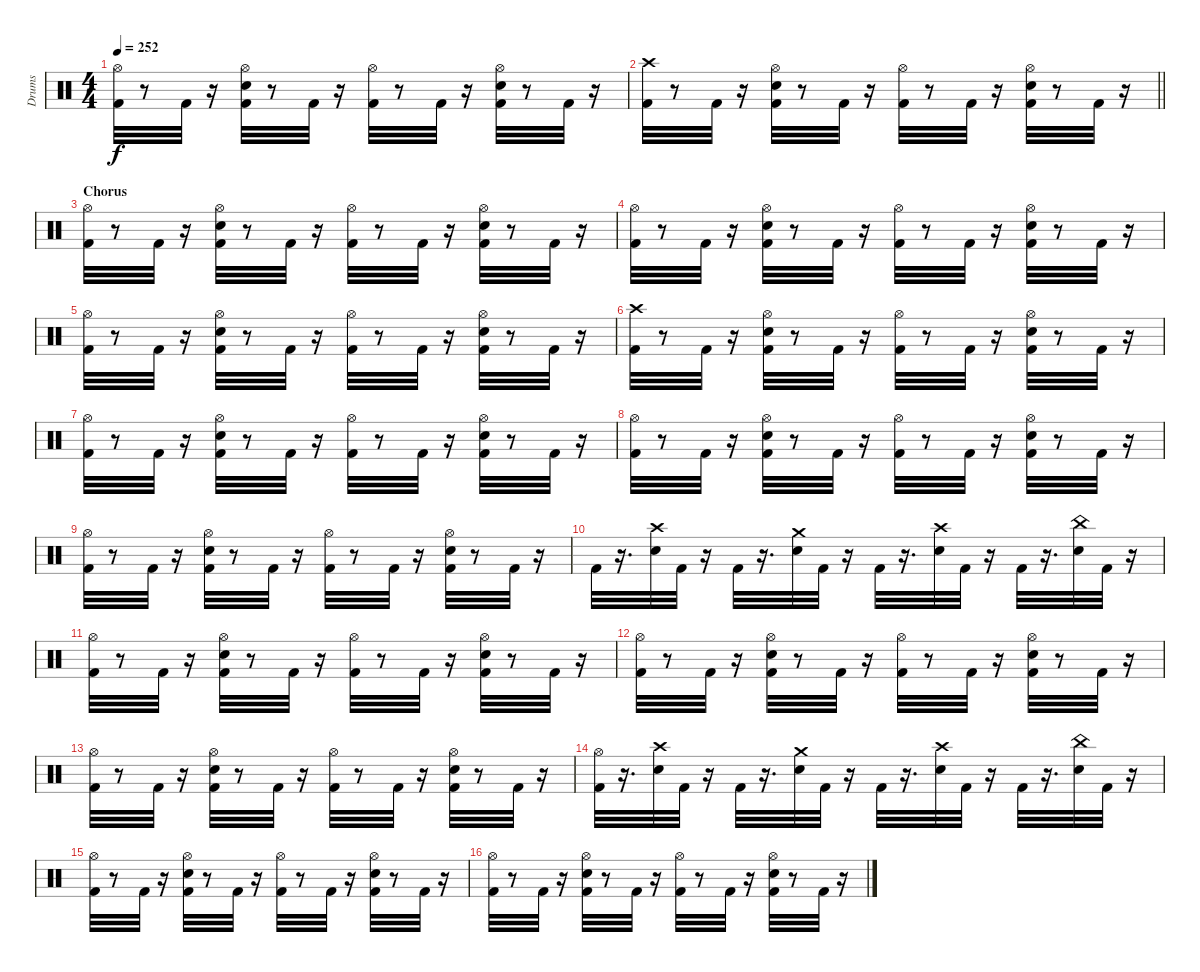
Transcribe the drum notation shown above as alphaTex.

\track ("Drums" "Drums") {instrument percussion}
\staff {score}
\articulation defaults
\ts (4 4)
\tempo 252
\clef neutral
\ks c
("Hi-Hat (open)" "Kick (hit) 2").32{dy f} r.8 "Kick (hit) 2".32 r.16 ("Snare (hit) 2" "Kick (hit) 2" "Hi-Hat (open)").32 r.8 "Kick (hit) 2".32 r.16 ("Kick (hit) 2" "Hi-Hat (open)").32 r.8 "Kick (hit) 2".32 r.16 ("Hi-Hat (open)" "Snare (hit) 2" "Kick (hit) 2").32 r.8 "Kick (hit) 2".32 r.16 |
\barLineRight lightlight
("Crash high (hit)" "Kick (hit) 2").32 r.8 "Kick (hit) 2".32 r.16 ("Snare (hit) 2" "Hi-Hat (open)" "Kick (hit) 2").32 r.8 "Kick (hit) 2".32 r.16 ("Hi-Hat (open)" "Kick (hit) 2").32 r.8 "Kick (hit) 2".32 r.16 ("Kick (hit) 2" "Snare (hit) 2" "Hi-Hat (open)").32 r.8 "Kick (hit) 2".32 r.16 |
\section ("" "Chorus")
("Hi-Hat (open)" "Kick (hit) 2").32 r.8 "Kick (hit) 2".32 r.16 ("Hi-Hat (open)" "Snare (hit) 2" "Kick (hit) 2").32 r.8 "Kick (hit) 2".32 r.16 ("Hi-Hat (open)" "Kick (hit) 2").32 r.8 "Kick (hit) 2".32 r.16 ("Hi-Hat (open)" "Snare (hit) 2" "Kick (hit) 2").32 r.8 "Kick (hit) 2".32 r.16 |
("Hi-Hat (open)" "Kick (hit) 2").32 r.8 "Kick (hit) 2".32 r.16 ("Snare (hit) 2" "Hi-Hat (open)" "Kick (hit) 2").32 r.8 "Kick (hit) 2".32 r.16 ("Kick (hit) 2" "Hi-Hat (open)").32 r.8 "Kick (hit) 2".32 r.16 ("Hi-Hat (open)" "Snare (hit) 2" "Kick (hit) 2").32 r.8 "Kick (hit) 2".32 r.16 |
("Hi-Hat (open)" "Kick (hit) 2").32 r.8 "Kick (hit) 2".32 r.16 ("Kick (hit) 2" "Hi-Hat (open)" "Snare (hit) 2").32 r.8 "Kick (hit) 2".32 r.16 ("Hi-Hat (open)" "Kick (hit) 2").32 r.8 "Kick (hit) 2".32 r.16 ("Hi-Hat (open)" "Kick (hit) 2" "Snare (hit) 2").32 r.8 "Kick (hit) 2".32 r.16 |
("Crash high (hit)" "Kick (hit) 2").32 r.8 "Kick (hit) 2".32 r.16 ("Hi-Hat (open)" "Snare (hit) 2" "Kick (hit) 2").32 r.8 "Kick (hit) 2".32 r.16 ("Hi-Hat (open)" "Kick (hit) 2").32 r.8 "Kick (hit) 2".32 r.16 ("Kick (hit) 2" "Hi-Hat (open)" "Snare (hit) 2").32 r.8 "Kick (hit) 2".32 r.16 |
("Hi-Hat (open)" "Kick (hit) 2").32 r.8 "Kick (hit) 2".32 r.16 ("Kick (hit) 2" "Snare (hit) 2" "Hi-Hat (open)").32 r.8 "Kick (hit) 2".32 r.16 ("Hi-Hat (open)" "Kick (hit) 2").32 r.8 "Kick (hit) 2".32 r.16 ("Kick (hit) 2" "Snare (hit) 2" "Hi-Hat (open)").32 r.8 "Kick (hit) 2".32 r.16 |
("Hi-Hat (open)" "Kick (hit) 2").32 r.8 "Kick (hit) 2".32 r.16 ("Kick (hit) 2" "Snare (hit) 2" "Hi-Hat (open)").32 r.8 "Kick (hit) 2".32 r.16 ("Hi-Hat (open)" "Kick (hit) 2").32 r.8 "Kick (hit) 2".32 r.16 ("Kick (hit) 2" "Snare (hit) 2" "Hi-Hat (open)").32 r.8 "Kick (hit) 2".32 r.16 |
("Hi-Hat (open)" "Kick (hit) 2").32 r.8 "Kick (hit) 2".32 r.16 ("Kick (hit) 2" "Snare (hit) 2" "Hi-Hat (open)").32 r.8 "Kick (hit) 2".32 r.16 ("Hi-Hat (open)" "Kick (hit) 2").32 r.8 "Kick (hit) 2".32 r.16 ("Kick (hit) 2" "Snare (hit) 2" "Hi-Hat (open)").32 r.8 "Kick (hit) 2".32 r.16 |
"Kick (hit) 2".32 r.16{d} ("Crash high (hit)" "Snare (hit) 2").32 "Kick (hit) 2".32 r.16 "Kick (hit) 2".32 r.16{d} ("Snare (hit) 2" "Crash medium (hit)").32 "Kick (hit) 2".32 r.16 "Kick (hit) 2".32 r.16{d} ("Snare (hit) 2" "Crash high (hit)").32 "Kick (hit) 2".32 r.16 "Kick (hit) 2".32 r.16{d} ("China (hit)" "Snare (hit) 2").32 "Kick (hit) 2".32 r.16 |
("Hi-Hat (open)" "Kick (hit) 2").32 r.8 "Kick (hit) 2".32 r.16 ("Hi-Hat (open)" "Snare (hit) 2" "Kick (hit) 2").32 r.8 "Kick (hit) 2".32 r.16 ("Kick (hit) 2" "Hi-Hat (open)").32 r.8 "Kick (hit) 2".32 r.16 ("Kick (hit) 2" "Hi-Hat (open)" "Snare (hit) 2").32 r.8 "Kick (hit) 2".32 r.16 |
("Hi-Hat (open)" "Kick (hit) 2").32 r.8 "Kick (hit) 2".32 r.16 ("Kick (hit) 2" "Hi-Hat (open)" "Snare (hit) 2").32 r.8 "Kick (hit) 2".32 r.16 ("Kick (hit) 2" "Hi-Hat (open)").32 r.8 "Kick (hit) 2".32 r.16 ("Snare (hit) 2" "Hi-Hat (open)" "Kick (hit) 2").32 r.8 "Kick (hit) 2".32 r.16 |
("Hi-Hat (open)" "Kick (hit) 2").32 r.8 "Kick (hit) 2".32 r.16 ("Kick (hit) 2" "Hi-Hat (open)" "Snare (hit) 2").32 r.8 "Kick (hit) 2".32 r.16 ("Kick (hit) 2" "Hi-Hat (open)").32 r.8 "Kick (hit) 2".32 r.16 ("Snare (hit) 2" "Hi-Hat (open)" "Kick (hit) 2").32 r.8 "Kick (hit) 2".32 r.16 |
("Kick (hit) 2" "Hi-Hat (open)").32 r.16{d} ("Crash high (hit)" "Snare (hit) 2").32 "Kick (hit) 2".32 r.16 "Kick (hit) 2".32 r.16{d} ("Crash medium (hit)" "Snare (hit) 2").32 "Kick (hit) 2".32 r.16 "Kick (hit) 2".32 r.16{d} ("Snare (hit) 2" "Crash high (hit)").32 "Kick (hit) 2".32 r.16 "Kick (hit) 2".32 r.16{d} ("China (hit)" "Snare (hit) 2").32 "Kick (hit) 2".32 r.16 |
("Hi-Hat (open)" "Kick (hit) 2").32 r.8 "Kick (hit) 2".32 r.16 ("Snare (hit) 2" "Kick (hit) 2" "Hi-Hat (open)").32 r.8 "Kick (hit) 2".32 r.16 ("Kick (hit) 2" "Hi-Hat (open)").32 r.8 "Kick (hit) 2".32 r.16 ("Hi-Hat (open)" "Kick (hit) 2" "Snare (hit) 2").32 r.8 "Kick (hit) 2".32 r.16 |
("Hi-Hat (open)" "Kick (hit) 2").32 r.8 "Kick (hit) 2".32 r.16 ("Snare (hit) 2" "Kick (hit) 2" "Hi-Hat (open)").32 r.8 "Kick (hit) 2".32 r.16 ("Kick (hit) 2" "Hi-Hat (open)").32 r.8 "Kick (hit) 2".32 r.16 ("Hi-Hat (open)" "Kick (hit) 2" "Snare (hit) 2").32 r.8 "Kick (hit) 2".32 r.16
